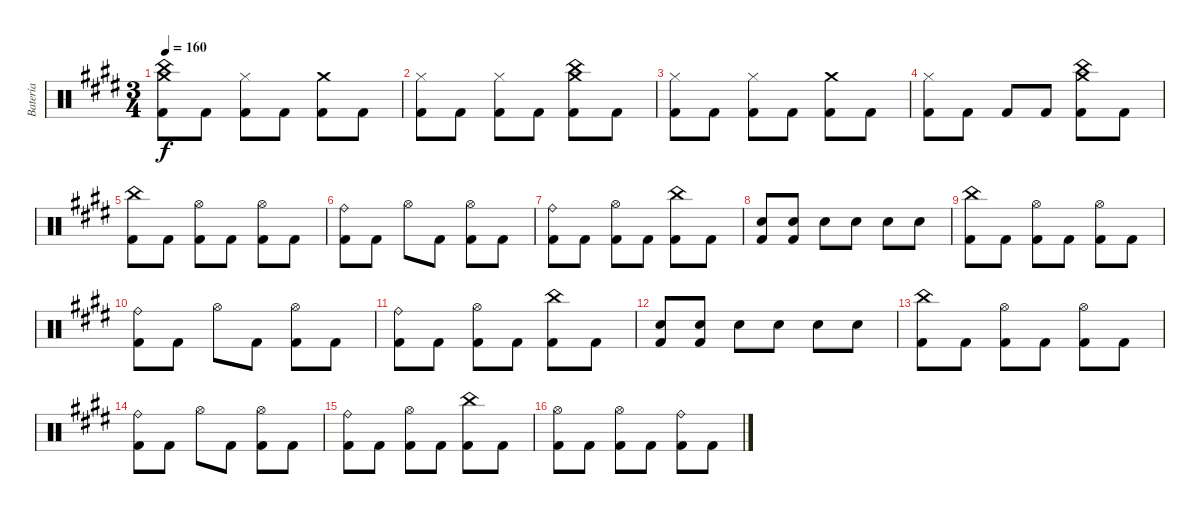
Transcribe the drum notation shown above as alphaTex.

\track ("Batería" "Batería") {instrument percussion}
\staff {score}
\articulation defaults
\ts (3 4)
\tempo 160
\clef neutral
\ks c#minor
("Crash medium (hit)" "China (hit)" "Kick (hit) 2").8{dy f} "Kick (hit) 2".8 ("Hi-Hat (closed)" "Kick (hit) 2").8 "Kick (hit) 2".8 ("Crash medium (hit)" "Kick (hit) 2").8 "Kick (hit) 2".8 |
("Hi-Hat (closed)" "Kick (hit) 2").8 "Kick (hit) 2".8 ("Hi-Hat (closed)" "Kick (hit) 2").8 "Kick (hit) 2".8 ("Crash medium (hit)" "China (hit)" "Kick (hit) 2").8 "Kick (hit) 2".8 |
("Hi-Hat (closed)" "Kick (hit) 2").8 "Kick (hit) 2".8 ("Hi-Hat (closed)" "Kick (hit) 2").8 "Kick (hit) 2".8 ("Crash medium (hit)" "Kick (hit) 2").8 "Kick (hit) 2".8 |
("Hi-Hat (closed)" "Kick (hit) 2").8 "Kick (hit) 2".8 "Kick (hit) 2".8 "Kick (hit) 2".8 ("Crash medium (hit)" "China (hit)" "Kick (hit) 2").8 "Kick (hit) 2".8 |
("China (hit)" "Kick (hit) 2").8 "Kick (hit) 2".8 ("Hi-Hat (open)" "Kick (hit) 2").8 "Kick (hit) 2".8 ("Hi-Hat (open)" "Kick (hit) 2").8 "Kick (hit) 2".8 |
("Ride (bell)" "Kick (hit) 2").8 "Kick (hit) 2".8 "Hi-Hat (open)".8 "Kick (hit) 2".8 ("Hi-Hat (open)" "Kick (hit) 2").8 "Kick (hit) 2".8 |
("Ride (bell)" "Kick (hit) 2").8 "Kick (hit) 2".8 ("Hi-Hat (open)" "Kick (hit) 2").8 "Kick (hit) 2".8 ("China (hit)" "Kick (hit) 2").8 "Kick (hit) 2".8 |
("Snare (hit) 2" "Kick (hit) 2").8 ("Snare (hit) 2" "Kick (hit) 2").8 "Snare (hit) 2".8 "Snare (hit) 2".8 "Snare (hit) 2".8 "Snare (hit) 2".8 |
("China (hit)" "Kick (hit) 2").8 "Kick (hit) 2".8 ("Hi-Hat (open)" "Kick (hit) 2").8 "Kick (hit) 2".8 ("Hi-Hat (open)" "Kick (hit) 2").8 "Kick (hit) 2".8 |
("Ride (bell)" "Kick (hit) 2").8 "Kick (hit) 2".8 "Hi-Hat (open)".8 "Kick (hit) 2".8 ("Hi-Hat (open)" "Kick (hit) 2").8 "Kick (hit) 2".8 |
("Ride (bell)" "Kick (hit) 2").8 "Kick (hit) 2".8 ("Hi-Hat (open)" "Kick (hit) 2").8 "Kick (hit) 2".8 ("China (hit)" "Kick (hit) 2").8 "Kick (hit) 2".8 |
("Snare (hit) 2" "Kick (hit) 2").8 ("Snare (hit) 2" "Kick (hit) 2").8 "Snare (hit) 2".8 "Snare (hit) 2".8 "Snare (hit) 2".8 "Snare (hit) 2".8 |
("China (hit)" "Kick (hit) 2").8 "Kick (hit) 2".8 ("Hi-Hat (open)" "Kick (hit) 2").8 "Kick (hit) 2".8 ("Hi-Hat (open)" "Kick (hit) 2").8 "Kick (hit) 2".8 |
("Ride (bell)" "Kick (hit) 2").8 "Kick (hit) 2".8 "Hi-Hat (open)".8 "Kick (hit) 2".8 ("Hi-Hat (open)" "Kick (hit) 2").8 "Kick (hit) 2".8 |
("Ride (bell)" "Kick (hit) 2").8 "Kick (hit) 2".8 ("Hi-Hat (open)" "Kick (hit) 2").8 "Kick (hit) 2".8 ("China (hit)" "Kick (hit) 2").8 "Kick (hit) 2".8 |
("Hi-Hat (open)" "Kick (hit) 2").8 "Kick (hit) 2".8 ("Hi-Hat (open)" "Kick (hit) 2").8 "Kick (hit) 2".8 ("Ride (bell)" "Kick (hit) 2").8 "Kick (hit) 2".8
